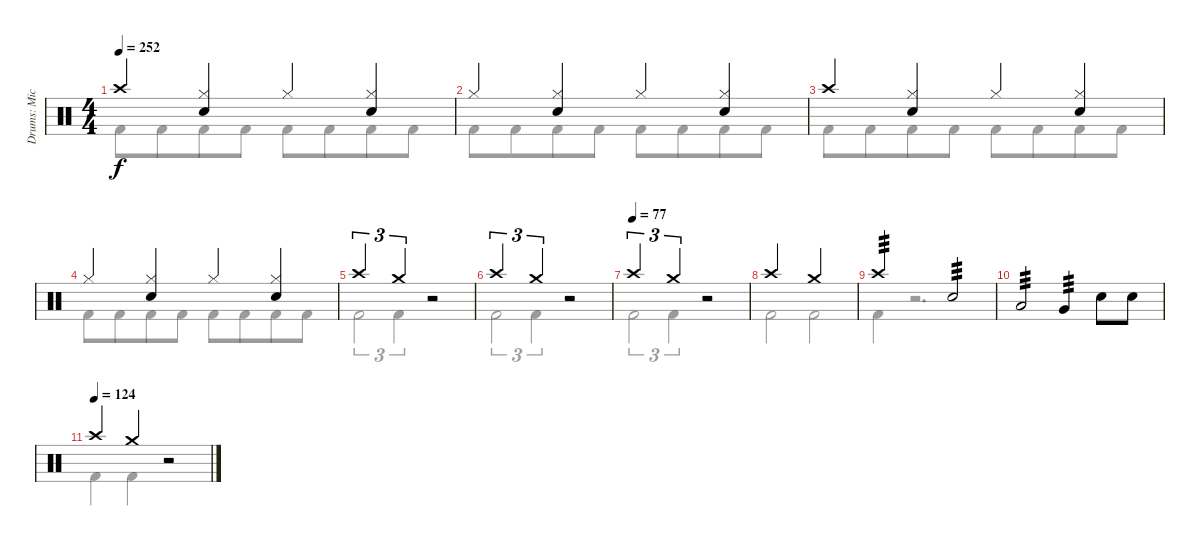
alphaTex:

\track ("Drums: Mick" "Drums: Mic") {instrument percussion}
\staff {score}
\articulation defaults
\voice
\ts (4 4)
\tempo 252
\clef neutral
\ks c "Crash high (hit)".4{dy f}
("Hi-Hat (closed)" "Snare (hit) 2").4 "Hi-Hat (closed)".4 ("Hi-Hat (closed)" "Snare (hit) 2").4 |
"Hi-Hat (closed)".4 ("Hi-Hat (closed)" "Snare (hit) 2").4 "Hi-Hat (closed)".4 ("Hi-Hat (closed)" "Snare (hit) 2").4 |
"Crash high (hit)".4 ("Hi-Hat (closed)" "Snare (hit) 2").4 "Hi-Hat (closed)".4 ("Hi-Hat (closed)" "Snare (hit) 2").4 |
"Hi-Hat (closed)".4 ("Hi-Hat (closed)" "Snare (hit) 2").4 "Hi-Hat (closed)".4 ("Hi-Hat (closed)" "Snare (hit) 2").4 |
"Crash high (hit)".2{tu (3 2)} "Crash medium (hit)".4{tu (3 2)} r.2 |
"Crash high (hit)".2{tu (3 2)} "Crash medium (hit)".4{tu (3 2)} r.2 |
\tempo (77)
"Crash high (hit)".2{tu (3 2)} "Crash medium (hit)".4{tu (3 2)} r.2 |
"Crash high (hit)".2 "Crash medium (hit)".2 |
"Crash high (hit)".2{tp 3} "Snare (hit) 2".2{tp 3} |
"Low Tom (hit)".2{tp 3} "Very Low Tom (hit)".4{tp 3} "Snare (hit) 2".8 "Snare (hit) 2".8 |
\tempo (124)
"Crash high (hit)".4 "Crash medium (hit)".4 r.2
\voice
\clef neutral
\ottava regular
\simile none
\ks c "Kick (hit) 2".8{dy f} "Kick (hit) 2".8{beam merge} "Kick (hit) 2".8 "Kick (hit) 2".8 "Kick (hit) 2".8 "Kick (hit) 2".8{beam merge} "Kick (hit) 2".8 "Kick (hit) 2".8
|
"Kick (hit) 2".8 "Kick (hit) 2".8{beam merge} "Kick (hit) 2".8 "Kick (hit) 2".8 "Kick (hit) 2".8 "Kick (hit) 2".8{beam merge} "Kick (hit) 2".8 "Kick (hit) 2".8 |
"Kick (hit) 2".8 "Kick (hit) 2".8{beam merge} "Kick (hit) 2".8 "Kick (hit) 2".8 "Kick (hit) 2".8 "Kick (hit) 2".8{beam merge} "Kick (hit) 2".8 "Kick (hit) 2".8 |
"Kick (hit) 2".8 "Kick (hit) 2".8{beam merge} "Kick (hit) 2".8 "Kick (hit) 2".8 "Kick (hit) 2".8 "Kick (hit) 2".8{beam merge} "Kick (hit) 2".8 "Kick (hit) 2".8 |
"Kick (hit) 2".2{tu (3 2)} "Kick (hit) 2".4{tu (3 2)} r.2 |
"Kick (hit) 2".2{tu (3 2)} "Kick (hit) 2".4{tu (3 2)} r.2 |
"Kick (hit) 2".2{tu (3 2)} "Kick (hit) 2".4{tu (3 2)} r.2 |
"Kick (hit) 2".2 "Kick (hit) 2".2 |
"Kick (hit) 2".4 r.2{d} |
|
"Kick (hit) 2".4 "Kick (hit) 2".4 r.2
